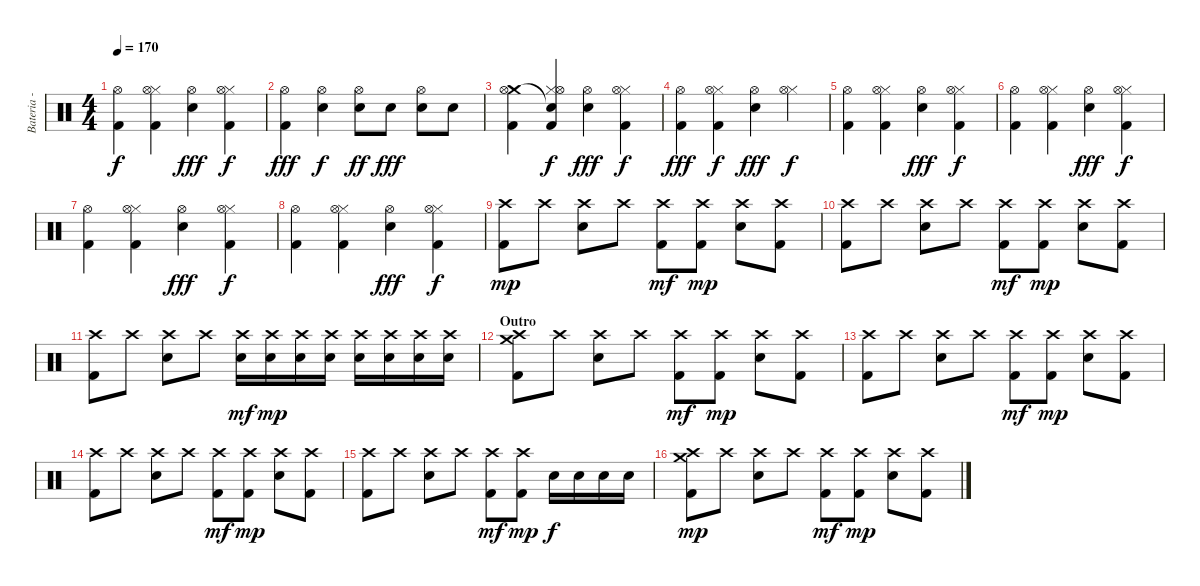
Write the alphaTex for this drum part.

\track ("Bateria - Larzon" "Bateria - ") {instrument percussion}
\staff {score}
\articulation defaults
\ts (4 4)
\tempo 170
\clef neutral
\ks c
("Kick (hit) 2" "Hi-Hat (open)").4{dy f} ("Kick (hit) 2" "Hi-Hat (closed)" "Hi-Hat (open)").4 ("Snare (hit) 2" "Hi-Hat (open)").4{dy fff} ("Kick (hit) 2" "Hi-Hat (closed)" "Hi-Hat (open)").4{dy f} |
("Kick (hit) 2" "Hi-Hat (open)").4{dy fff volume 16} ("Snare (hit) 2" "Hi-Hat (open)").4{dy f} ("Snare (hit) 2" "Hi-Hat (open)").8{dy ff} "Snare (hit) 2".8{dy fff} ("Snare (hit) 2" "Hi-Hat (open)").8 "Snare (hit) 2".8 |
("Kick (hit) 2" "Crash medium (hit)" "Hi-Hat (open)").4{volume 13} ("Kick (hit) 2" "Hi-Hat (closed)" "Snare (hit)"{t} "Hi-Hat (open)").4{dy f} ("Snare (hit) 2" "Hi-Hat (open)").4{dy fff} ("Kick (hit) 2" "Hi-Hat (closed)" "Hi-Hat (open)").4{dy f} |
("Kick (hit) 2" "Hi-Hat (open)").4{dy fff} ("Kick (hit) 2" "Hi-Hat (closed)" "Hi-Hat (open)").4{dy f} ("Snare (hit) 2" "Hi-Hat (open)").4{dy fff} ("Hi-Hat (closed)" "Hi-Hat (open)").4{dy f} |
("Kick (hit) 2" "Hi-Hat (open)").4 ("Kick (hit) 2" "Hi-Hat (closed)" "Hi-Hat (open)").4 ("Snare (hit) 2" "Hi-Hat (open)").4{dy fff} ("Kick (hit) 2" "Hi-Hat (closed)" "Hi-Hat (open)").4{dy f} |
("Kick (hit) 2" "Hi-Hat (open)").4 ("Kick (hit) 2" "Hi-Hat (closed)" "Hi-Hat (open)").4 ("Snare (hit) 2" "Hi-Hat (open)").4{dy fff} ("Kick (hit) 2" "Hi-Hat (closed)" "Hi-Hat (open)").4{dy f} |
("Kick (hit) 2" "Hi-Hat (open)").4 ("Kick (hit) 2" "Hi-Hat (closed)" "Hi-Hat (open)").4 ("Snare (hit) 2" "Hi-Hat (open)").4{dy fff} ("Kick (hit) 2" "Hi-Hat (closed)" "Hi-Hat (open)").4{dy f} |
("Kick (hit) 2" "Hi-Hat (open)").4 ("Kick (hit) 2" "Hi-Hat (closed)" "Hi-Hat (open)").4 ("Snare (hit) 2" "Hi-Hat (open)").4{dy fff} ("Kick (hit) 2" "Hi-Hat (closed)" "Hi-Hat (open)").4{dy f} |
("Kick (hit) 2" "Crash high (hit)").8{dy mp} "Crash high (hit)".8 ("Snare (hit) 2" "Crash high (hit)").8 "Crash high (hit)".8 ("Kick (hit) 2" "Crash high (hit)").8{dy mf} ("Kick (hit) 2" "Crash high (hit)").8{dy mp} ("Snare (hit) 2" "Crash high (hit)").8 ("Kick (hit) 2" "Crash high (hit)").8 |
("Kick (hit) 2" "Crash high (hit)").8 "Crash high (hit)".8 ("Snare (hit) 2" "Crash high (hit)").8 "Crash high (hit)".8 ("Kick (hit) 2" "Crash high (hit)").8{dy mf} ("Kick (hit) 2" "Crash high (hit)").8{dy mp} ("Snare (hit) 2" "Crash high (hit)").8 ("Kick (hit) 2" "Crash high (hit)").8 |
("Kick (hit) 2" "Crash high (hit)").8 "Crash high (hit)".8 ("Snare (hit) 2" "Crash high (hit)").8 "Crash high (hit)".8 ("Snare (hit) 2" "Crash high (hit)").16{dy mf} ("Snare (hit) 2" "Crash high (hit)").16{dy mp} ("Snare (hit) 2" "Crash high (hit)").16 ("Snare (hit) 2" "Crash high (hit)").16 ("Electric Snare (hit)" "Crash high (hit)").16 ("Electric Snare (hit)" "Crash high (hit)").16 ("Electric Snare (hit)" "Crash high (hit)").16 ("Electric Snare (hit)" "Crash high (hit)").16 |
\section ("" "Outro")
("Kick (hit) 2" "Crash medium (hit)" "Crash high (hit)").8{volume 13} "Crash high (hit)".8 ("Electric Snare (hit)" "Crash high (hit)").8 "Crash high (hit)".8 ("Kick (hit) 2" "Crash high (hit)").8{dy mf} ("Kick (hit) 2" "Crash high (hit)").8{dy mp} ("Electric Snare (hit)" "Crash high (hit)").8 ("Kick (hit) 2" "Crash high (hit)").8 |
("Kick (hit) 2" "Crash high (hit)").8 "Crash high (hit)".8 ("Electric Snare (hit)" "Crash high (hit)").8 "Crash high (hit)".8 ("Kick (hit) 2" "Crash high (hit)").8{dy mf} ("Kick (hit) 2" "Crash high (hit)").8{dy mp} ("Electric Snare (hit)" "Crash high (hit)").8 ("Kick (hit) 2" "Crash high (hit)").8 |
("Kick (hit) 2" "Crash high (hit)").8 "Crash high (hit)".8 ("Electric Snare (hit)" "Crash high (hit)").8 "Crash high (hit)".8 ("Kick (hit) 2" "Crash high (hit)").8{dy mf} ("Kick (hit) 2" "Crash high (hit)").8{dy mp} ("Electric Snare (hit)" "Crash high (hit)").8 ("Kick (hit) 2" "Crash high (hit)").8 |
("Kick (hit) 2" "Crash high (hit)").8 "Crash high (hit)".8 ("Electric Snare (hit)" "Crash high (hit)").8 "Crash high (hit)".8 ("Kick (hit) 2" "Crash high (hit)").8{dy mf} ("Kick (hit) 2" "Crash high (hit)").8{dy mp} "Electric Snare (hit)".16{dy f} "Electric Snare (hit)".16 "Electric Snare (hit)".16 "Electric Snare (hit)".16 |
("Kick (hit) 2" "Crash medium (hit)" "Crash high (hit)").8{dy mp} "Crash high (hit)".8 ("Electric Snare (hit)" "Crash high (hit)").8 "Crash high (hit)".8 ("Kick (hit) 2" "Crash high (hit)").8{dy mf} ("Kick (hit) 2" "Crash high (hit)").8{dy mp} ("Electric Snare (hit)" "Crash high (hit)").8 ("Kick (hit) 2" "Crash high (hit)").8
